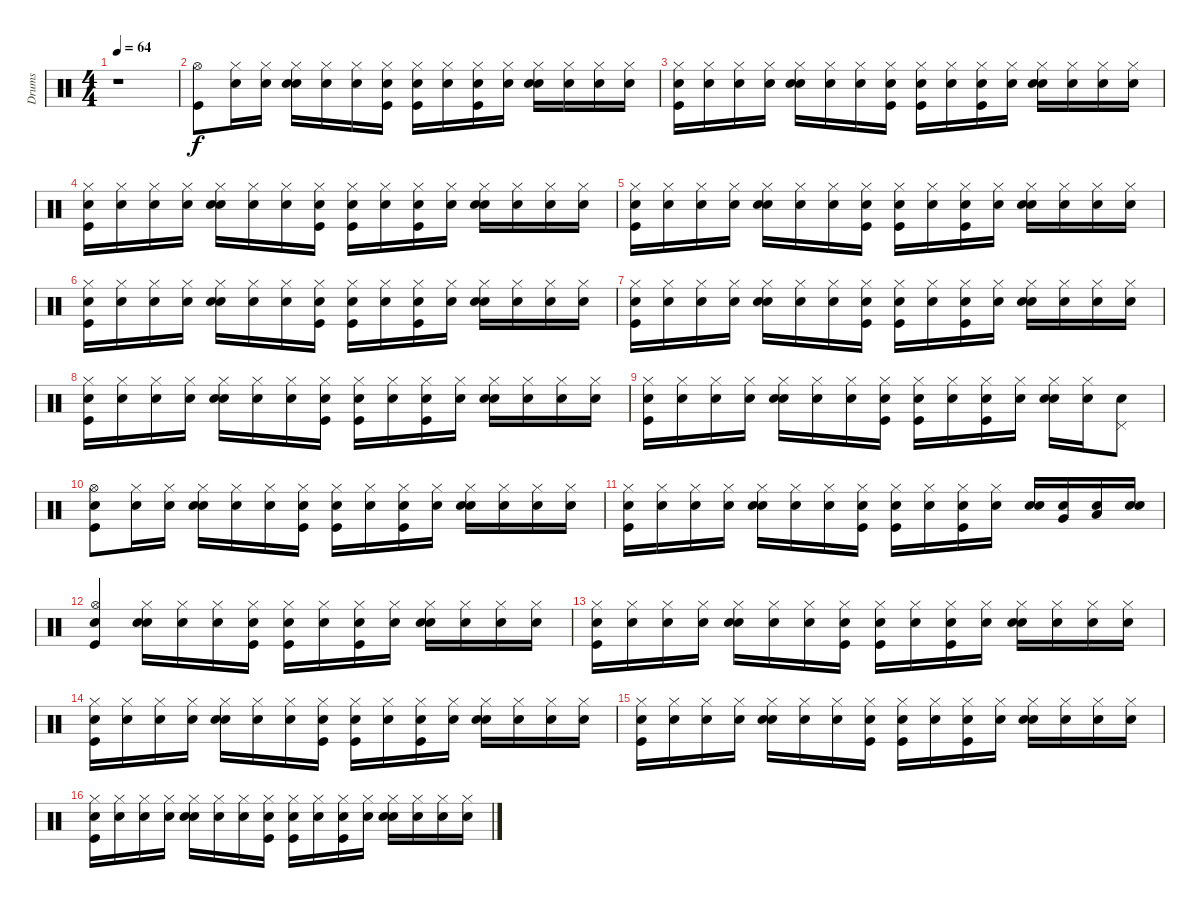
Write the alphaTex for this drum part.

\track ("Drums" "Drums") {instrument percussion}
\staff {score}
\articulation defaults
\ts (4 4)
\tempo 64
\clef neutral
\ks c
r.1{dy f} |
("Kick (hit)" "Hi-Hat (open)").8 ("Snare (hit)" "Hi-Hat (closed)").16 ("Snare (hit)" "Hi-Hat (closed)").16 ("Snare (hit)" "Snare (hit) 2" "Hi-Hat (closed)").16 ("Snare (hit)" "Hi-Hat (closed)").16 ("Snare (hit)" "Hi-Hat (closed)").16 ("Snare (hit)" "Kick (hit)" "Hi-Hat (closed)").16 ("Snare (hit)" "Kick (hit)" "Hi-Hat (closed)").16 ("Snare (hit)" "Hi-Hat (closed)").16 ("Snare (hit)" "Kick (hit)" "Hi-Hat (closed)").16 ("Snare (hit)" "Hi-Hat (closed)").16 ("Snare (hit)" "Snare (hit) 2" "Hi-Hat (closed)").16 ("Snare (hit)" "Hi-Hat (closed)").16 ("Snare (hit)" "Hi-Hat (closed)").16 ("Snare (hit)" "Hi-Hat (closed)").16 |
("Snare (hit)" "Kick (hit)" "Hi-Hat (closed)").16 ("Snare (hit)" "Hi-Hat (closed)").16 ("Snare (hit)" "Hi-Hat (closed)").16 ("Snare (hit)" "Hi-Hat (closed)").16 ("Snare (hit)" "Snare (hit) 2" "Hi-Hat (closed)").16 ("Snare (hit)" "Hi-Hat (closed)").16 ("Snare (hit)" "Hi-Hat (closed)").16 ("Snare (hit)" "Kick (hit)" "Hi-Hat (closed)").16 ("Snare (hit)" "Kick (hit)" "Hi-Hat (closed)").16 ("Snare (hit)" "Hi-Hat (closed)").16 ("Snare (hit)" "Kick (hit)" "Hi-Hat (closed)").16 ("Snare (hit)" "Hi-Hat (closed)").16 ("Snare (hit)" "Snare (hit) 2" "Hi-Hat (closed)").16 ("Snare (hit)" "Hi-Hat (closed)").16 ("Snare (hit)" "Hi-Hat (closed)").16 ("Snare (hit)" "Hi-Hat (closed)").16 |
("Snare (hit)" "Kick (hit)" "Hi-Hat (closed)").16 ("Snare (hit)" "Hi-Hat (closed)").16 ("Snare (hit)" "Hi-Hat (closed)").16 ("Snare (hit)" "Hi-Hat (closed)").16 ("Snare (hit)" "Snare (hit) 2" "Hi-Hat (closed)").16 ("Snare (hit)" "Hi-Hat (closed)").16 ("Snare (hit)" "Hi-Hat (closed)").16 ("Snare (hit)" "Kick (hit)" "Hi-Hat (closed)").16 ("Snare (hit)" "Kick (hit)" "Hi-Hat (closed)").16 ("Snare (hit)" "Hi-Hat (closed)").16 ("Snare (hit)" "Kick (hit)" "Hi-Hat (closed)").16 ("Snare (hit)" "Hi-Hat (closed)").16 ("Snare (hit)" "Snare (hit) 2" "Hi-Hat (closed)").16 ("Snare (hit)" "Hi-Hat (closed)").16 ("Snare (hit)" "Hi-Hat (closed)").16 ("Snare (hit)" "Hi-Hat (closed)").16 |
("Snare (hit)" "Kick (hit)" "Hi-Hat (closed)").16 ("Snare (hit)" "Hi-Hat (closed)").16 ("Snare (hit)" "Hi-Hat (closed)").16 ("Snare (hit)" "Hi-Hat (closed)").16 ("Snare (hit)" "Snare (hit) 2" "Hi-Hat (closed)").16 ("Snare (hit)" "Hi-Hat (closed)").16 ("Snare (hit)" "Hi-Hat (closed)").16 ("Snare (hit)" "Kick (hit)" "Hi-Hat (closed)").16 ("Snare (hit)" "Kick (hit)" "Hi-Hat (closed)").16 ("Snare (hit)" "Hi-Hat (closed)").16 ("Snare (hit)" "Kick (hit)" "Hi-Hat (closed)").16 ("Snare (hit)" "Hi-Hat (closed)").16 ("Snare (hit)" "Snare (hit) 2" "Hi-Hat (closed)").16 ("Snare (hit)" "Hi-Hat (closed)").16 ("Snare (hit)" "Hi-Hat (closed)").16 ("Snare (hit)" "Hi-Hat (closed)").16 |
("Snare (hit)" "Kick (hit)" "Hi-Hat (closed)").16 ("Snare (hit)" "Hi-Hat (closed)").16 ("Snare (hit)" "Hi-Hat (closed)").16 ("Snare (hit)" "Hi-Hat (closed)").16 ("Snare (hit)" "Snare (hit) 2" "Hi-Hat (closed)").16 ("Snare (hit)" "Hi-Hat (closed)").16 ("Snare (hit)" "Hi-Hat (closed)").16 ("Snare (hit)" "Kick (hit)" "Hi-Hat (closed)").16 ("Snare (hit)" "Kick (hit)" "Hi-Hat (closed)").16 ("Snare (hit)" "Hi-Hat (closed)").16 ("Snare (hit)" "Kick (hit)" "Hi-Hat (closed)").16 ("Snare (hit)" "Hi-Hat (closed)").16 ("Snare (hit)" "Snare (hit) 2" "Hi-Hat (closed)").16 ("Snare (hit)" "Hi-Hat (closed)").16 ("Snare (hit)" "Hi-Hat (closed)").16 ("Snare (hit)" "Hi-Hat (closed)").16 |
("Snare (hit)" "Kick (hit)" "Hi-Hat (closed)").16 ("Snare (hit)" "Hi-Hat (closed)").16 ("Snare (hit)" "Hi-Hat (closed)").16 ("Snare (hit)" "Hi-Hat (closed)").16 ("Snare (hit)" "Snare (hit) 2" "Hi-Hat (closed)").16 ("Snare (hit)" "Hi-Hat (closed)").16 ("Snare (hit)" "Hi-Hat (closed)").16 ("Snare (hit)" "Kick (hit)" "Hi-Hat (closed)").16 ("Snare (hit)" "Kick (hit)" "Hi-Hat (closed)").16 ("Snare (hit)" "Hi-Hat (closed)").16 ("Snare (hit)" "Kick (hit)" "Hi-Hat (closed)").16 ("Snare (hit)" "Hi-Hat (closed)").16 ("Snare (hit)" "Snare (hit) 2" "Hi-Hat (closed)").16 ("Snare (hit)" "Hi-Hat (closed)").16 ("Snare (hit)" "Hi-Hat (closed)").16 ("Snare (hit)" "Hi-Hat (closed)").16 |
("Snare (hit)" "Kick (hit)" "Hi-Hat (closed)").16 ("Snare (hit)" "Hi-Hat (closed)").16 ("Snare (hit)" "Hi-Hat (closed)").16 ("Snare (hit)" "Hi-Hat (closed)").16 ("Snare (hit)" "Snare (hit) 2" "Hi-Hat (closed)").16 ("Snare (hit)" "Hi-Hat (closed)").16 ("Snare (hit)" "Hi-Hat (closed)").16 ("Snare (hit)" "Kick (hit)" "Hi-Hat (closed)").16 ("Snare (hit)" "Kick (hit)" "Hi-Hat (closed)").16 ("Snare (hit)" "Hi-Hat (closed)").16 ("Snare (hit)" "Kick (hit)" "Hi-Hat (closed)").16 ("Snare (hit)" "Hi-Hat (closed)").16 ("Snare (hit)" "Snare (hit) 2" "Hi-Hat (closed)").16 ("Snare (hit)" "Hi-Hat (closed)").16 ("Snare (hit)" "Hi-Hat (closed)").16 ("Snare (hit)" "Hi-Hat (closed)").16 |
("Snare (hit)" "Kick (hit)" "Hi-Hat (closed)").16 ("Snare (hit)" "Hi-Hat (closed)").16 ("Snare (hit)" "Hi-Hat (closed)").16 ("Snare (hit)" "Hi-Hat (closed)").16 ("Snare (hit)" "Snare (hit) 2" "Hi-Hat (closed)").16 ("Snare (hit)" "Hi-Hat (closed)").16 ("Snare (hit)" "Hi-Hat (closed)").16 ("Snare (hit)" "Kick (hit)" "Hi-Hat (closed)").16 ("Snare (hit)" "Kick (hit)" "Hi-Hat (closed)").16 ("Snare (hit)" "Hi-Hat (closed)").16 ("Snare (hit)" "Kick (hit)" "Hi-Hat (closed)").16 ("Snare (hit)" "Hi-Hat (closed)").16 ("Snare (hit)" "Snare (hit) 2" "Hi-Hat (closed)").16 ("Snare (hit)" "Hi-Hat (closed)").16 ("Snare (hit)" "Pedal Hi-Hat (hit)").8 |
("Snare (hit)" "Hi-Hat (open)" "Kick (hit)").8 ("Snare (hit)" "Hi-Hat (closed)").16 ("Snare (hit)" "Hi-Hat (closed)").16 ("Snare (hit)" "Snare (hit) 2" "Hi-Hat (closed)").16 ("Snare (hit)" "Hi-Hat (closed)").16 ("Snare (hit)" "Hi-Hat (closed)").16 ("Snare (hit)" "Kick (hit)" "Hi-Hat (closed)").16 ("Snare (hit)" "Kick (hit)" "Hi-Hat (closed)").16 ("Snare (hit)" "Hi-Hat (closed)").16 ("Snare (hit)" "Kick (hit)" "Hi-Hat (closed)").16 ("Snare (hit)" "Hi-Hat (closed)").16 ("Snare (hit)" "Snare (hit) 2" "Hi-Hat (closed)").16 ("Snare (hit)" "Hi-Hat (closed)").16 ("Snare (hit)" "Hi-Hat (closed)").16 ("Snare (hit)" "Hi-Hat (closed)").16 |
("Snare (hit)" "Kick (hit)" "Hi-Hat (closed)").16 ("Snare (hit)" "Hi-Hat (closed)").16 ("Snare (hit)" "Hi-Hat (closed)").16 ("Snare (hit)" "Hi-Hat (closed)").16 ("Snare (hit)" "Snare (hit) 2" "Hi-Hat (closed)").16 ("Snare (hit)" "Hi-Hat (closed)").16 ("Snare (hit)" "Hi-Hat (closed)").16 ("Snare (hit)" "Kick (hit)" "Hi-Hat (closed)").16 ("Snare (hit)" "Kick (hit)" "Hi-Hat (closed)").16 ("Snare (hit)" "Hi-Hat (closed)").16 ("Snare (hit)" "Kick (hit)" "Hi-Hat (closed)").16 ("Snare (hit)" "Hi-Hat (closed)").16 ("Snare (hit)" "Snare (hit) 2").16 ("Snare (hit)" "Very Low Tom (hit)").16 ("Snare (hit)" "Low Floor Tom (hit)").16 ("Snare (hit)" "Electric Snare (hit)").16 |
("Snare (hit)" "Kick (hit)" "Hi-Hat (open)").4 ("Snare (hit)" "Snare (hit) 2" "Hi-Hat (closed)").16 ("Snare (hit)" "Hi-Hat (closed)").16 ("Snare (hit)" "Hi-Hat (closed)").16 ("Snare (hit)" "Kick (hit)" "Hi-Hat (closed)").16 ("Snare (hit)" "Kick (hit)" "Hi-Hat (closed)").16 ("Snare (hit)" "Hi-Hat (closed)").16 ("Snare (hit)" "Kick (hit)" "Hi-Hat (closed)").16 ("Snare (hit)" "Hi-Hat (closed)").16 ("Snare (hit)" "Snare (hit) 2" "Hi-Hat (closed)").16 ("Snare (hit)" "Hi-Hat (closed)").16 ("Snare (hit)" "Hi-Hat (closed)").16 ("Snare (hit)" "Hi-Hat (closed)").16 |
("Snare (hit)" "Kick (hit)" "Hi-Hat (closed)").16 ("Snare (hit)" "Hi-Hat (closed)").16 ("Snare (hit)" "Hi-Hat (closed)").16 ("Snare (hit)" "Hi-Hat (closed)").16 ("Snare (hit)" "Snare (hit) 2" "Hi-Hat (closed)").16 ("Snare (hit)" "Hi-Hat (closed)").16 ("Snare (hit)" "Hi-Hat (closed)").16 ("Snare (hit)" "Kick (hit)" "Hi-Hat (closed)").16 ("Snare (hit)" "Kick (hit)" "Hi-Hat (closed)").16 ("Snare (hit)" "Hi-Hat (closed)").16 ("Snare (hit)" "Kick (hit)" "Hi-Hat (closed)").16 ("Snare (hit)" "Hi-Hat (closed)").16 ("Snare (hit)" "Snare (hit) 2" "Hi-Hat (closed)").16 ("Snare (hit)" "Hi-Hat (closed)").16 ("Snare (hit)" "Hi-Hat (closed)").16 ("Snare (hit)" "Hi-Hat (closed)").16 |
("Snare (hit)" "Kick (hit)" "Hi-Hat (closed)").16 ("Snare (hit)" "Hi-Hat (closed)").16 ("Snare (hit)" "Hi-Hat (closed)").16 ("Snare (hit)" "Hi-Hat (closed)").16 ("Snare (hit)" "Snare (hit) 2" "Hi-Hat (closed)").16 ("Snare (hit)" "Hi-Hat (closed)").16 ("Snare (hit)" "Hi-Hat (closed)").16 ("Snare (hit)" "Kick (hit)" "Hi-Hat (closed)").16 ("Snare (hit)" "Kick (hit)" "Hi-Hat (closed)").16 ("Snare (hit)" "Hi-Hat (closed)").16 ("Snare (hit)" "Kick (hit)" "Hi-Hat (closed)").16 ("Snare (hit)" "Hi-Hat (closed)").16 ("Snare (hit)" "Snare (hit) 2" "Hi-Hat (closed)").16 ("Snare (hit)" "Hi-Hat (closed)").16 ("Snare (hit)" "Hi-Hat (closed)").16 ("Snare (hit)" "Hi-Hat (closed)").16 |
("Snare (hit)" "Kick (hit)" "Hi-Hat (closed)").16 ("Snare (hit)" "Hi-Hat (closed)").16 ("Snare (hit)" "Hi-Hat (closed)").16 ("Snare (hit)" "Hi-Hat (closed)").16 ("Snare (hit)" "Snare (hit) 2" "Hi-Hat (closed)").16 ("Snare (hit)" "Hi-Hat (closed)").16 ("Snare (hit)" "Hi-Hat (closed)").16 ("Snare (hit)" "Kick (hit)" "Hi-Hat (closed)").16 ("Snare (hit)" "Kick (hit)" "Hi-Hat (closed)").16 ("Snare (hit)" "Hi-Hat (closed)").16 ("Snare (hit)" "Kick (hit)" "Hi-Hat (closed)").16 ("Snare (hit)" "Hi-Hat (closed)").16 ("Snare (hit)" "Snare (hit) 2" "Hi-Hat (closed)").16 ("Snare (hit)" "Hi-Hat (closed)").16 ("Snare (hit)" "Hi-Hat (closed)").16 ("Snare (hit)" "Hi-Hat (closed)").16 |
("Snare (hit)" "Kick (hit)" "Hi-Hat (closed)").16 ("Snare (hit)" "Hi-Hat (closed)").16 ("Snare (hit)" "Hi-Hat (closed)").16 ("Snare (hit)" "Hi-Hat (closed)").16 ("Snare (hit)" "Snare (hit) 2" "Hi-Hat (closed)").16 ("Snare (hit)" "Hi-Hat (closed)").16 ("Snare (hit)" "Hi-Hat (closed)").16 ("Snare (hit)" "Kick (hit)" "Hi-Hat (closed)").16 ("Snare (hit)" "Kick (hit)" "Hi-Hat (closed)").16 ("Snare (hit)" "Hi-Hat (closed)").16 ("Snare (hit)" "Kick (hit)" "Hi-Hat (closed)").16 ("Snare (hit)" "Hi-Hat (closed)").16 ("Snare (hit)" "Snare (hit) 2" "Hi-Hat (closed)").16 ("Snare (hit)" "Hi-Hat (closed)").16 ("Snare (hit)" "Hi-Hat (closed)").16 ("Snare (hit)" "Hi-Hat (closed)").16
